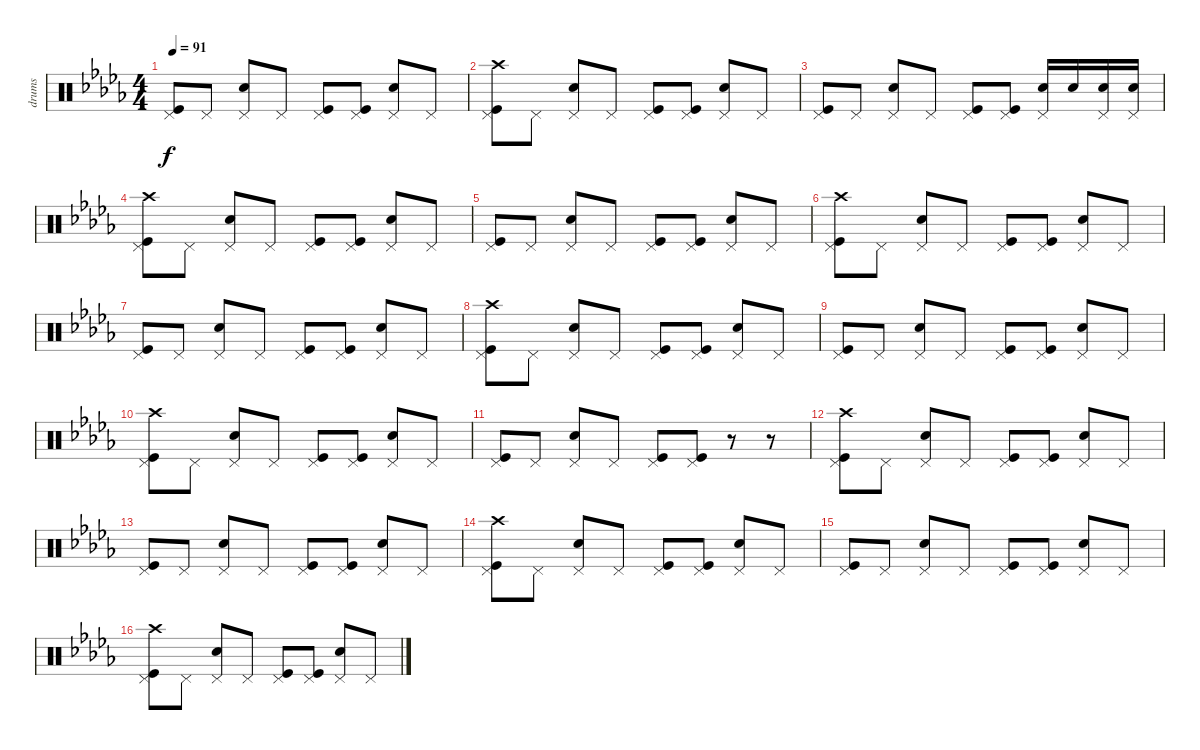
\track ("drums" "drums") {instrument percussion}
\staff {score}
\articulation defaults
\ts (4 4)
\tempo 91
\clef neutral
\ks db
("Pedal Hi-Hat (hit)" "Kick (hit)").8{dy f} "Pedal Hi-Hat (hit)".8 ("Pedal Hi-Hat (hit)" "Snare (hit) 2").8 "Pedal Hi-Hat (hit)".8 ("Pedal Hi-Hat (hit)" "Kick (hit)").8 ("Pedal Hi-Hat (hit)" "Kick (hit)").8 ("Pedal Hi-Hat (hit)" "Snare (hit) 2").8 "Pedal Hi-Hat (hit)".8 |
("Crash high (hit)" "Pedal Hi-Hat (hit)" "Kick (hit)").8 "Pedal Hi-Hat (hit)".8 ("Pedal Hi-Hat (hit)" "Electric Snare (hit)").8 "Pedal Hi-Hat (hit)".8 ("Pedal Hi-Hat (hit)" "Kick (hit)").8 ("Pedal Hi-Hat (hit)" "Kick (hit)").8 ("Pedal Hi-Hat (hit)" "Electric Snare (hit)").8 "Pedal Hi-Hat (hit)".8 |
("Pedal Hi-Hat (hit)" "Kick (hit)").8 "Pedal Hi-Hat (hit)".8 ("Pedal Hi-Hat (hit)" "Snare (hit) 2").8 "Pedal Hi-Hat (hit)".8 ("Pedal Hi-Hat (hit)" "Kick (hit)").8 ("Pedal Hi-Hat (hit)" "Kick (hit)").8 ("Pedal Hi-Hat (hit)" "Snare (hit) 2").16 "Snare (hit) 2".16 ("Pedal Hi-Hat (hit)" "Snare (hit) 2").16 ("Pedal Hi-Hat (hit)" "Snare (hit) 2").16 |
("Crash high (hit)" "Pedal Hi-Hat (hit)" "Kick (hit)").8 "Pedal Hi-Hat (hit)".8 ("Pedal Hi-Hat (hit)" "Electric Snare (hit)").8 "Pedal Hi-Hat (hit)".8 ("Pedal Hi-Hat (hit)" "Kick (hit)").8 ("Pedal Hi-Hat (hit)" "Kick (hit)").8 ("Pedal Hi-Hat (hit)" "Electric Snare (hit)").8 "Pedal Hi-Hat (hit)".8 |
("Pedal Hi-Hat (hit)" "Kick (hit)").8 "Pedal Hi-Hat (hit)".8 ("Pedal Hi-Hat (hit)" "Snare (hit) 2").8 "Pedal Hi-Hat (hit)".8 ("Pedal Hi-Hat (hit)" "Kick (hit)").8 ("Pedal Hi-Hat (hit)" "Kick (hit)").8 ("Pedal Hi-Hat (hit)" "Snare (hit) 2").8 "Pedal Hi-Hat (hit)".8 |
("Crash high (hit)" "Pedal Hi-Hat (hit)" "Kick (hit)").8 "Pedal Hi-Hat (hit)".8 ("Pedal Hi-Hat (hit)" "Electric Snare (hit)").8 "Pedal Hi-Hat (hit)".8 ("Pedal Hi-Hat (hit)" "Kick (hit)").8 ("Pedal Hi-Hat (hit)" "Kick (hit)").8 ("Pedal Hi-Hat (hit)" "Electric Snare (hit)").8 "Pedal Hi-Hat (hit)".8 |
("Pedal Hi-Hat (hit)" "Kick (hit)").8 "Pedal Hi-Hat (hit)".8 ("Pedal Hi-Hat (hit)" "Snare (hit) 2").8 "Pedal Hi-Hat (hit)".8 ("Pedal Hi-Hat (hit)" "Kick (hit)").8 ("Pedal Hi-Hat (hit)" "Kick (hit)").8 ("Pedal Hi-Hat (hit)" "Snare (hit) 2").8 "Pedal Hi-Hat (hit)".8 |
("Crash high (hit)" "Pedal Hi-Hat (hit)" "Kick (hit)").8 "Pedal Hi-Hat (hit)".8 ("Pedal Hi-Hat (hit)" "Electric Snare (hit)").8 "Pedal Hi-Hat (hit)".8 ("Pedal Hi-Hat (hit)" "Kick (hit)").8 ("Pedal Hi-Hat (hit)" "Kick (hit)").8 ("Pedal Hi-Hat (hit)" "Electric Snare (hit)").8 "Pedal Hi-Hat (hit)".8 |
("Pedal Hi-Hat (hit)" "Kick (hit)").8 "Pedal Hi-Hat (hit)".8 ("Pedal Hi-Hat (hit)" "Snare (hit) 2").8 "Pedal Hi-Hat (hit)".8 ("Pedal Hi-Hat (hit)" "Kick (hit)").8 ("Pedal Hi-Hat (hit)" "Kick (hit)").8 ("Pedal Hi-Hat (hit)" "Snare (hit) 2").8 "Pedal Hi-Hat (hit)".8 |
("Crash high (hit)" "Pedal Hi-Hat (hit)" "Kick (hit)").8 "Pedal Hi-Hat (hit)".8 ("Pedal Hi-Hat (hit)" "Electric Snare (hit)").8 "Pedal Hi-Hat (hit)".8 ("Pedal Hi-Hat (hit)" "Kick (hit)").8 ("Pedal Hi-Hat (hit)" "Kick (hit)").8 ("Pedal Hi-Hat (hit)" "Electric Snare (hit)").8 "Pedal Hi-Hat (hit)".8 |
("Pedal Hi-Hat (hit)" "Kick (hit)").8 "Pedal Hi-Hat (hit)".8 ("Pedal Hi-Hat (hit)" "Snare (hit) 2").8 "Pedal Hi-Hat (hit)".8 ("Pedal Hi-Hat (hit)" "Kick (hit)").8 ("Pedal Hi-Hat (hit)" "Kick (hit)").8 r.8 r.8 |
("Crash high (hit)" "Pedal Hi-Hat (hit)" "Kick (hit)").8 "Pedal Hi-Hat (hit)".8 ("Pedal Hi-Hat (hit)" "Electric Snare (hit)").8 "Pedal Hi-Hat (hit)".8 ("Pedal Hi-Hat (hit)" "Kick (hit)").8 ("Pedal Hi-Hat (hit)" "Kick (hit)").8 ("Pedal Hi-Hat (hit)" "Electric Snare (hit)").8 "Pedal Hi-Hat (hit)".8 |
("Pedal Hi-Hat (hit)" "Kick (hit)").8 "Pedal Hi-Hat (hit)".8 ("Pedal Hi-Hat (hit)" "Snare (hit) 2").8 "Pedal Hi-Hat (hit)".8 ("Pedal Hi-Hat (hit)" "Kick (hit)").8 ("Pedal Hi-Hat (hit)" "Kick (hit)").8 ("Pedal Hi-Hat (hit)" "Snare (hit) 2").8 "Pedal Hi-Hat (hit)".8 |
("Crash high (hit)" "Pedal Hi-Hat (hit)" "Kick (hit)").8 "Pedal Hi-Hat (hit)".8 ("Pedal Hi-Hat (hit)" "Electric Snare (hit)").8 "Pedal Hi-Hat (hit)".8 ("Pedal Hi-Hat (hit)" "Kick (hit)").8 ("Pedal Hi-Hat (hit)" "Kick (hit)").8 ("Pedal Hi-Hat (hit)" "Electric Snare (hit)").8 "Pedal Hi-Hat (hit)".8 |
("Pedal Hi-Hat (hit)" "Kick (hit)").8 "Pedal Hi-Hat (hit)".8 ("Pedal Hi-Hat (hit)" "Snare (hit) 2").8 "Pedal Hi-Hat (hit)".8 ("Pedal Hi-Hat (hit)" "Kick (hit)").8 ("Pedal Hi-Hat (hit)" "Kick (hit)").8 ("Pedal Hi-Hat (hit)" "Snare (hit) 2").8 "Pedal Hi-Hat (hit)".8 |
("Crash high (hit)" "Pedal Hi-Hat (hit)" "Kick (hit)").8 "Pedal Hi-Hat (hit)".8 ("Pedal Hi-Hat (hit)" "Electric Snare (hit)").8 "Pedal Hi-Hat (hit)".8 ("Pedal Hi-Hat (hit)" "Kick (hit)").8 ("Pedal Hi-Hat (hit)" "Kick (hit)").8 ("Pedal Hi-Hat (hit)" "Electric Snare (hit)").8 "Pedal Hi-Hat (hit)".8
